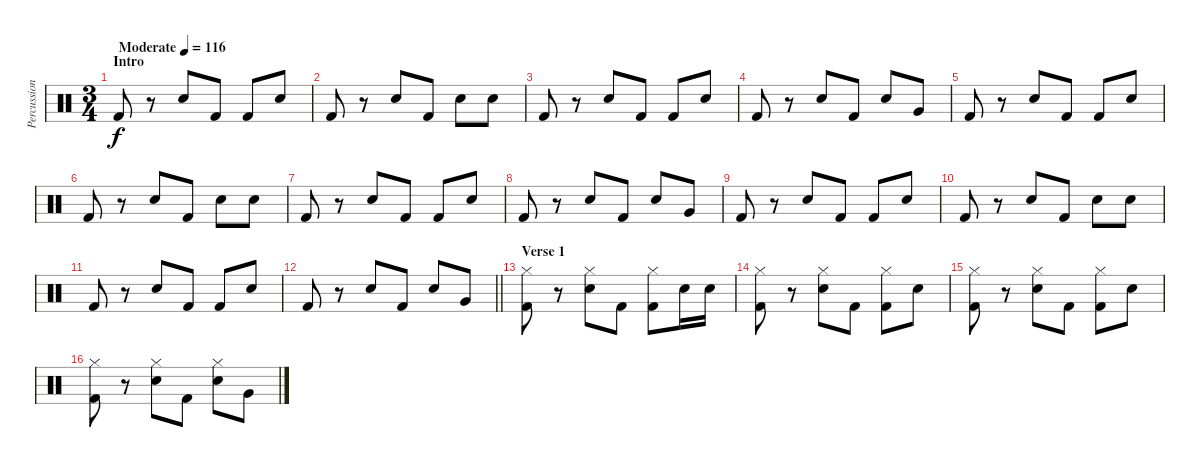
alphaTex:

\track ("Percussion" "Percussion") {instrument percussion}
\staff {score}
\articulation defaults
\ts (3 4)
\section ("" "Intro")
\tempo (116 "Moderate")
\clef neutral
\ks c "Kick (hit) 2".8{dy f}
r.8 "Electric Snare (hit)".8 "Kick (hit) 2".8 "Kick (hit) 2".8 "Electric Snare (hit)".8 |
"Kick (hit) 2".8 r.8 "Electric Snare (hit)".8 "Kick (hit) 2".8 "Electric Snare (hit)".8 "Electric Snare (hit)".8 |
"Kick (hit) 2".8 r.8 "Electric Snare (hit)".8 "Kick (hit) 2".8 "Kick (hit) 2".8 "Electric Snare (hit)".8 |
"Kick (hit) 2".8 r.8 "Electric Snare (hit)".8 "Kick (hit) 2".8 "Electric Snare (hit)".8 "Very Low Tom (hit)".8 |
"Kick (hit) 2".8 r.8 "Electric Snare (hit)".8 "Kick (hit) 2".8 "Kick (hit) 2".8 "Electric Snare (hit)".8 |
"Kick (hit) 2".8 r.8 "Electric Snare (hit)".8 "Kick (hit) 2".8 "Electric Snare (hit)".8 "Electric Snare (hit)".8 |
"Kick (hit) 2".8 r.8 "Electric Snare (hit)".8 "Kick (hit) 2".8 "Kick (hit) 2".8 "Electric Snare (hit)".8 |
"Kick (hit) 2".8 r.8 "Electric Snare (hit)".8 "Kick (hit) 2".8 "Electric Snare (hit)".8 "Very Low Tom (hit)".8 |
"Kick (hit) 2".8 r.8 "Electric Snare (hit)".8 "Kick (hit) 2".8 "Kick (hit) 2".8 "Electric Snare (hit)".8 |
"Kick (hit) 2".8 r.8 "Electric Snare (hit)".8 "Kick (hit) 2".8 "Electric Snare (hit)".8 "Electric Snare (hit)".8 |
"Kick (hit) 2".8 r.8 "Electric Snare (hit)".8 "Kick (hit) 2".8 "Kick (hit) 2".8 "Electric Snare (hit)".8 |
\barLineRight lightlight "Kick (hit) 2".8
r.8 "Electric Snare (hit)".8 "Kick (hit) 2".8 "Electric Snare (hit)".8 "Very Low Tom (hit)".8 |
\section ("" "Verse 1")
("Hi-Hat (closed)" "Kick (hit) 2").8 r.8 ("Hi-Hat (closed)" "Electric Snare (hit)").8 "Kick (hit) 2".8 ("Hi-Hat (closed)" "Kick (hit) 2").8 "Electric Snare (hit)".16 "Electric Snare (hit)".16 |
("Hi-Hat (closed)" "Kick (hit) 2").8 r.8 ("Hi-Hat (closed)" "Electric Snare (hit)").8 "Kick (hit) 2".8 ("Hi-Hat (closed)" "Kick (hit) 2").8 "Electric Snare (hit)".8 |
("Hi-Hat (closed)" "Kick (hit) 2").8 r.8 ("Hi-Hat (closed)" "Electric Snare (hit)").8 "Kick (hit) 2".8 ("Hi-Hat (closed)" "Kick (hit) 2").8 "Electric Snare (hit)".8 |
("Hi-Hat (closed)" "Kick (hit) 2").8 r.8 ("Hi-Hat (closed)" "Electric Snare (hit)").8 "Kick (hit) 2".8 ("Hi-Hat (closed)" "Electric Snare (hit)").8 "Very Low Tom (hit)".8
